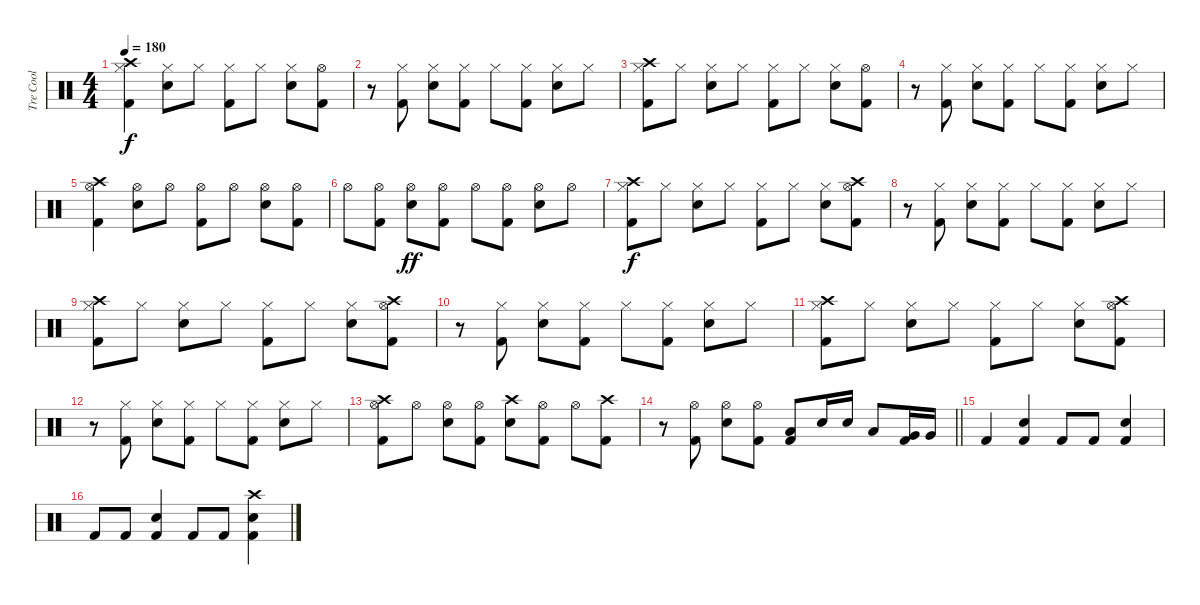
\track ("Tre Cool" "Tre Cool") {instrument percussion}
\staff {score}
\articulation defaults
\ts (4 4)
\tempo 180
\clef neutral
\ks c
("Crash high (hit)" "Hi-Hat (closed)" "Kick (hit) 2").4{dy f} ("Hi-Hat (closed)" "Electric Snare (hit)").8 "Hi-Hat (closed)".8 ("Hi-Hat (closed)" "Kick (hit) 2").8 "Hi-Hat (closed)".8 ("Hi-Hat (closed)" "Electric Snare (hit)").8 ("Hi-Hat (open)" "Kick (hit) 2").8 |
r.8 ("Hi-Hat (closed)" "Kick (hit) 2").8 ("Hi-Hat (closed)" "Electric Snare (hit)").8 ("Hi-Hat (closed)" "Kick (hit) 2").8 "Hi-Hat (closed)".8 ("Hi-Hat (closed)" "Kick (hit) 2").8 ("Hi-Hat (closed)" "Electric Snare (hit)").8 "Hi-Hat (closed)".8 |
("Crash high (hit)" "Hi-Hat (closed)" "Kick (hit) 2").8 "Hi-Hat (closed)".8 ("Hi-Hat (closed)" "Electric Snare (hit)").8 "Hi-Hat (closed)".8 ("Hi-Hat (closed)" "Kick (hit) 2").8 "Hi-Hat (closed)".8 ("Hi-Hat (closed)" "Electric Snare (hit)").8 ("Hi-Hat (open)" "Kick (hit) 2").8 |
r.8 ("Hi-Hat (closed)" "Kick (hit) 2").8 ("Hi-Hat (closed)" "Electric Snare (hit)").8 ("Hi-Hat (closed)" "Kick (hit) 2").8 "Hi-Hat (closed)".8 ("Hi-Hat (closed)" "Kick (hit) 2").8 ("Hi-Hat (closed)" "Electric Snare (hit)").8 "Hi-Hat (closed)".8 |
("Crash high (hit)" "Hi-Hat (open)" "Kick (hit) 2").4 ("Hi-Hat (open)" "Electric Snare (hit)").8 "Hi-Hat (open)".8 ("Hi-Hat (open)" "Kick (hit) 2").8 "Hi-Hat (open)".8 ("Hi-Hat (open)" "Electric Snare (hit)").8 ("Hi-Hat (open)" "Kick (hit) 2").8 |
"Hi-Hat (open)".8 ("Hi-Hat (open)" "Kick (hit) 2").8 ("Hi-Hat (open)" "Electric Snare (hit)").8{dy ff} ("Hi-Hat (open)" "Kick (hit) 2").8 "Hi-Hat (open)".8 ("Hi-Hat (open)" "Kick (hit) 2").8 ("Hi-Hat (open)" "Electric Snare (hit)").8 "Hi-Hat (open)".8 |
("Crash high (hit)" "Hi-Hat (closed)" "Kick (hit) 2").8{dy f} "Hi-Hat (closed)".8 ("Hi-Hat (closed)" "Electric Snare (hit)").8 "Hi-Hat (closed)".8 ("Hi-Hat (closed)" "Kick (hit) 2").8 "Hi-Hat (closed)".8 ("Hi-Hat (closed)" "Electric Snare (hit)").8 ("Crash high (hit)" "Hi-Hat (open)" "Kick (hit) 2").8 |
r.8 ("Hi-Hat (closed)" "Kick (hit) 2").8 ("Hi-Hat (closed)" "Electric Snare (hit)").8 ("Hi-Hat (closed)" "Kick (hit) 2").8 "Hi-Hat (closed)".8 ("Hi-Hat (closed)" "Kick (hit) 2").8 ("Hi-Hat (closed)" "Electric Snare (hit)").8 "Hi-Hat (closed)".8 |
("Crash high (hit)" "Hi-Hat (closed)" "Kick (hit) 2").8 "Hi-Hat (closed)".8 ("Hi-Hat (closed)" "Electric Snare (hit)").8 "Hi-Hat (closed)".8 ("Hi-Hat (closed)" "Kick (hit) 2").8 "Hi-Hat (closed)".8 ("Hi-Hat (closed)" "Electric Snare (hit)").8 ("Crash high (hit)" "Hi-Hat (open)" "Kick (hit) 2").8 |
r.8 ("Hi-Hat (closed)" "Kick (hit) 2").8 ("Hi-Hat (closed)" "Electric Snare (hit)").8 ("Hi-Hat (closed)" "Kick (hit) 2").8 "Hi-Hat (closed)".8 ("Hi-Hat (closed)" "Kick (hit) 2").8 ("Hi-Hat (closed)" "Electric Snare (hit)").8 "Hi-Hat (closed)".8 |
("Crash high (hit)" "Hi-Hat (closed)" "Kick (hit) 2").8 "Hi-Hat (closed)".8 ("Hi-Hat (closed)" "Electric Snare (hit)").8 "Hi-Hat (closed)".8 ("Hi-Hat (closed)" "Kick (hit) 2").8 "Hi-Hat (closed)".8 ("Hi-Hat (closed)" "Electric Snare (hit)").8 ("Crash high (hit)" "Hi-Hat (open)" "Kick (hit) 2").8 |
r.8 ("Hi-Hat (closed)" "Kick (hit) 2").8 ("Hi-Hat (closed)" "Electric Snare (hit)").8 ("Hi-Hat (closed)" "Kick (hit) 2").8 "Hi-Hat (closed)".8 ("Hi-Hat (closed)" "Kick (hit) 2").8 ("Hi-Hat (closed)" "Electric Snare (hit)").8 "Hi-Hat (closed)".8 |
("Crash high (hit)" "Hi-Hat (open)" "Kick (hit) 2").8 "Hi-Hat (open)".8 ("Hi-Hat (open)" "Electric Snare (hit)").8 ("Hi-Hat (open)" "Kick (hit) 2").8 ("Crash high (hit)" "Electric Snare (hit)").8 ("Hi-Hat (open)" "Kick (hit) 2").8 "Hi-Hat (open)".8 ("Crash high (hit)" "Kick (hit) 2").8 |
\barLineRight lightlight
r.8 ("Hi-Hat (open)" "Kick (hit) 2").8 ("Hi-Hat (open)" "Electric Snare (hit)").8 ("Hi-Hat (open)" "Kick (hit) 2").8 ("Low Tom (hit)" "Kick (hit) 2").8 "Electric Snare (hit)".16 "Electric Snare (hit)".16 "Low Tom (hit)".8 ("Very Low Tom (hit)" "Kick (hit) 2").16 "Very Low Tom (hit)".16 |
"Kick (hit) 2".4 ("Electric Snare (hit)" "Kick (hit) 2").4 "Kick (hit) 2".8 "Kick (hit) 2".8 ("Electric Snare (hit)" "Kick (hit) 2").4 |
"Kick (hit) 2".8 "Kick (hit) 2".8 ("Electric Snare (hit)" "Kick (hit) 2").4 "Kick (hit) 2".8 "Kick (hit) 2".8 ("Crash high (hit)" "Electric Snare (hit)" "Kick (hit) 2").4
